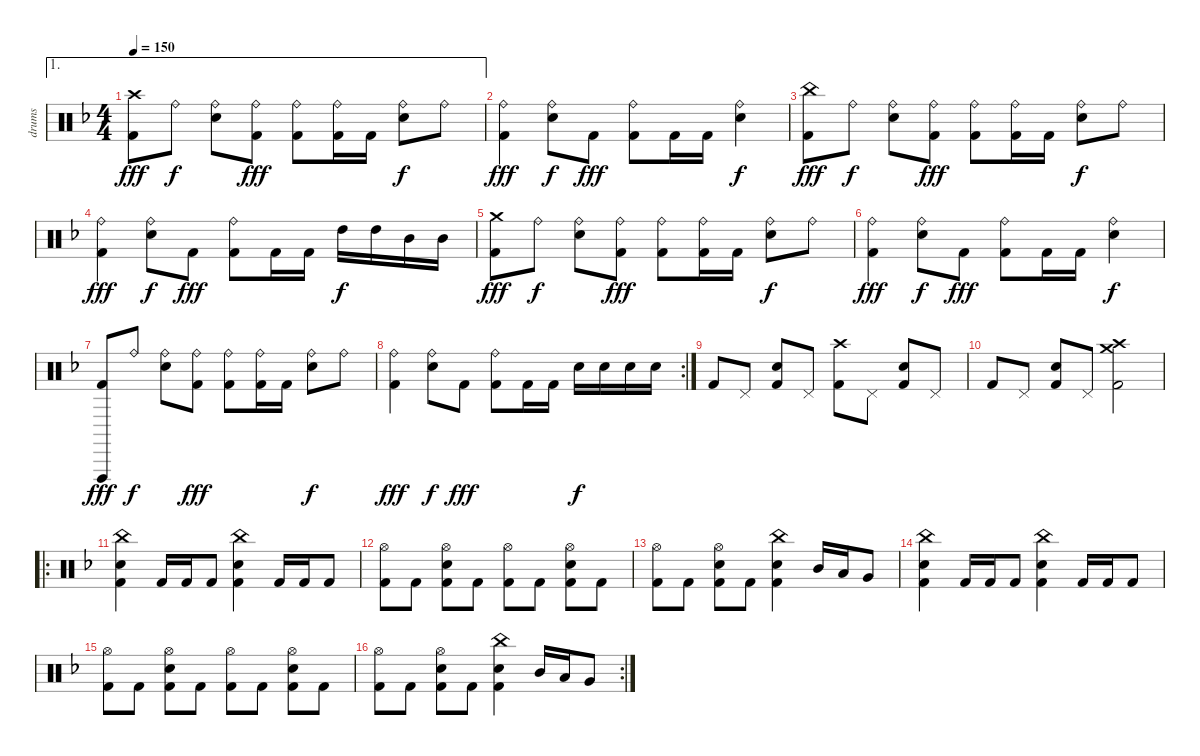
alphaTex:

\track ("drums" "drums") {instrument percussion}
\staff {score}
\articulation defaults
\ae 1
\ts (4 4)
\tempo 150
\clef neutral
\ks dminor
("Crash high (hit)" "Kick (hit) 2").8{dy fff} "Ride (bell)".8{dy f} ("Ride (bell)" "Electric Snare (hit)").8 ("Ride (bell)" "Kick (hit) 2").8{dy fff} ("Ride (bell)" "Kick (hit) 2").8 ("Ride (bell)" "Kick (hit) 2").16 "Kick (hit) 2".16 ("Ride (bell)" "Electric Snare (hit)").8{dy f} "Ride (bell)".8 |
("Ride (bell)" "Kick (hit) 2").4{dy fff} ("Ride (bell)" "Electric Snare (hit)").8{dy f} "Kick (hit) 2".8{dy fff} ("Ride (bell)" "Kick (hit) 2").8 "Kick (hit) 2".16 "Kick (hit) 2".16 ("Ride (bell)" "Electric Snare (hit)").4{dy f} |
("China (hit)" "Kick (hit) 2").8{dy fff} "Ride (bell)".8{dy f} ("Ride (bell)" "Electric Snare (hit)").8 ("Ride (bell)" "Kick (hit) 2").8{dy fff} ("Ride (bell)" "Kick (hit) 2").8 ("Ride (bell)" "Kick (hit) 2").16 "Kick (hit) 2".16 ("Ride (bell)" "Electric Snare (hit)").8{dy f} "Ride (bell)".8 |
("Ride (bell)" "Kick (hit) 2").4{dy fff} ("Ride (bell)" "Electric Snare (hit)").8{dy f} "Kick (hit) 2".8{dy fff} ("Ride (bell)" "Kick (hit) 2").8 "Kick (hit) 2".16 "Kick (hit) 2".16 "High Tom (hit)".16{dy f} "High Tom (hit)".16 "Mid Tom (hit)".16 "Mid Tom (hit)".16 |
("Crash medium (hit)" "Kick (hit) 2").8{dy fff} "Ride (bell)".8{dy f} ("Ride (bell)" "Electric Snare (hit)").8 ("Ride (bell)" "Kick (hit) 2").8{dy fff} ("Ride (bell)" "Kick (hit) 2").8 ("Ride (bell)" "Kick (hit) 2").16 "Kick (hit) 2".16 ("Ride (bell)" "Electric Snare (hit)").8{dy f} "Ride (bell)".8 |
("Ride (bell)" "Kick (hit) 2").4{dy fff} ("Ride (bell)" "Electric Snare (hit)").8{dy f} "Kick (hit) 2".8{dy fff} ("Ride (bell)" "Kick (hit) 2").8 "Kick (hit) 2".16 "Kick (hit) 2".16 ("Ride (bell)" "Electric Snare (hit)").4{dy f} |
("Vibraslap (hit)" "Kick (hit) 2").8{dy fff} "Ride (bell)".8{dy f} ("Ride (bell)" "Electric Snare (hit)").8 ("Ride (bell)" "Kick (hit) 2").8{dy fff} ("Ride (bell)" "Kick (hit) 2").8 ("Ride (bell)" "Kick (hit) 2").16 "Kick (hit) 2".16 ("Ride (bell)" "Electric Snare (hit)").8{dy f} "Ride (bell)".8 |
\rc 2
("Ride (bell)" "Kick (hit) 2").4{dy fff} ("Ride (bell)" "Electric Snare (hit)").8{dy f} "Kick (hit) 2".8{dy fff} ("Ride (bell)" "Kick (hit) 2").8 "Kick (hit) 2".16 "Kick (hit) 2".16 "Electric Snare (hit)".16{dy f} "Electric Snare (hit)".16 "Electric Snare (hit)".16 "Electric Snare (hit)".16 |
"Kick (hit) 2".8 "Pedal Hi-Hat (hit)".8 ("Electric Snare (hit)" "Kick (hit) 2").8 "Pedal Hi-Hat (hit)".8 ("Crash high (hit)" "Kick (hit) 2").8 "Pedal Hi-Hat (hit)".8 ("Electric Snare (hit)" "Kick (hit) 2").8 "Pedal Hi-Hat (hit)".8 |
"Kick (hit) 2".8 "Pedal Hi-Hat (hit)".8 ("Electric Snare (hit)" "Kick (hit) 2").8 "Pedal Hi-Hat (hit)".8 ("Crash medium (hit)" "Crash high (hit)" "Kick (hit) 2").2 |
\ro
("China (hit)" "Electric Snare (hit)" "Kick (hit) 2").4 "Kick (hit) 2".16 "Kick (hit) 2".16 "Kick (hit) 2".8 ("China (hit)" "Electric Snare (hit)" "Kick (hit) 2").4 "Kick (hit) 2".16 "Kick (hit) 2".16 "Kick (hit) 2".8 |
("Hi-Hat (open)" "Kick (hit) 2").8 "Kick (hit) 2".8 ("Hi-Hat (open)" "Electric Snare (hit)" "Kick (hit) 2").8 "Kick (hit) 2".8 ("Hi-Hat (open)" "Kick (hit) 2").8 "Kick (hit) 2".8 ("Hi-Hat (open)" "Electric Snare (hit)" "Kick (hit) 2").8 "Kick (hit) 2".8 |
("Hi-Hat (open)" "Kick (hit) 2").8 "Kick (hit) 2".8 ("Hi-Hat (open)" "Electric Snare (hit)" "Kick (hit) 2").8 "Kick (hit) 2".8 ("China (hit)" "Electric Snare (hit)" "Kick (hit) 2").4 "Mid Tom (hit)".16 "Low Tom (hit)".16 "Very Low Tom (hit)".8 |
("China (hit)" "Electric Snare (hit)" "Kick (hit) 2").4 "Kick (hit) 2".16 "Kick (hit) 2".16 "Kick (hit) 2".8 ("China (hit)" "Electric Snare (hit)" "Kick (hit) 2").4 "Kick (hit) 2".16 "Kick (hit) 2".16 "Kick (hit) 2".8 |
("Hi-Hat (open)" "Kick (hit) 2").8 "Kick (hit) 2".8 ("Hi-Hat (open)" "Electric Snare (hit)" "Kick (hit) 2").8 "Kick (hit) 2".8 ("Hi-Hat (open)" "Kick (hit) 2").8 "Kick (hit) 2".8 ("Hi-Hat (open)" "Electric Snare (hit)" "Kick (hit) 2").8 "Kick (hit) 2".8 |
\rc 2
("Hi-Hat (open)" "Kick (hit) 2").8 "Kick (hit) 2".8 ("Hi-Hat (open)" "Electric Snare (hit)" "Kick (hit) 2").8 "Kick (hit) 2".8 ("China (hit)" "Electric Snare (hit)" "Kick (hit) 2").4 "Mid Tom (hit)".16 "Low Tom (hit)".16 "Very Low Tom (hit)".8
